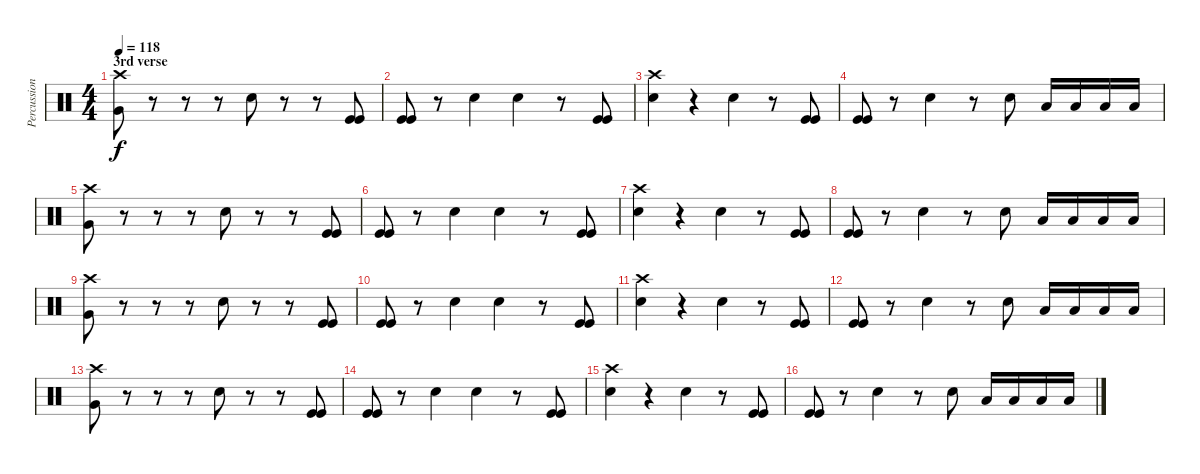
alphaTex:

\track ("Percussion" "Percussion") {instrument percussion}
\staff {score}
\articulation defaults
\ts (4 4)
\section ("" "3rd verse")
\tempo 118
\clef neutral
\ks c
("Crash high (hit)" "Very Low Tom (hit)").8{dy f} r.8 r.8 r.8 "Electric Snare (hit)".8 r.8 r.8 ("Kick (hit)" "Kick (hit)").8 |
("Kick (hit)" "Kick (hit)").8 r.8 "Electric Snare (hit)".4 "Electric Snare (hit)".4 r.8 ("Kick (hit)" "Kick (hit)").8 |
("Crash high (hit)" "Electric Snare (hit)").4 r.4 "Electric Snare (hit)".4 r.8 ("Kick (hit)" "Kick (hit)").8 |
("Kick (hit)" "Kick (hit)").8 r.8 "Electric Snare (hit)".4 r.8 "Electric Snare (hit)".8 "Low Tom (hit)".16 "Low Floor Tom (hit)".16 "Low Tom (hit)".16 "Low Floor Tom (hit)".16 |
("Crash high (hit)" "Very Low Tom (hit)").8 r.8 r.8 r.8 "Electric Snare (hit)".8 r.8 r.8 ("Kick (hit)" "Kick (hit)").8 |
("Kick (hit)" "Kick (hit)").8 r.8 "Electric Snare (hit)".4 "Electric Snare (hit)".4 r.8 ("Kick (hit)" "Kick (hit)").8 |
("Crash high (hit)" "Electric Snare (hit)").4 r.4 "Electric Snare (hit)".4 r.8 ("Kick (hit)" "Kick (hit)").8 |
("Kick (hit)" "Kick (hit)").8 r.8 "Electric Snare (hit)".4 r.8 "Electric Snare (hit)".8 "Low Tom (hit)".16 "Low Floor Tom (hit)".16 "Low Tom (hit)".16 "Low Floor Tom (hit)".16 |
("Crash high (hit)" "Very Low Tom (hit)").8 r.8 r.8 r.8 "Electric Snare (hit)".8 r.8 r.8 ("Kick (hit)" "Kick (hit)").8 |
("Kick (hit)" "Kick (hit)").8 r.8 "Electric Snare (hit)".4 "Electric Snare (hit)".4 r.8 ("Kick (hit)" "Kick (hit)").8 |
("Crash high (hit)" "Electric Snare (hit)").4 r.4 "Electric Snare (hit)".4 r.8 ("Kick (hit)" "Kick (hit)").8 |
("Kick (hit)" "Kick (hit)").8 r.8 "Electric Snare (hit)".4 r.8 "Electric Snare (hit)".8 "Low Tom (hit)".16 "Low Floor Tom (hit)".16 "Low Tom (hit)".16 "Low Floor Tom (hit)".16 |
("Crash high (hit)" "Very Low Tom (hit)").8 r.8 r.8 r.8 "Electric Snare (hit)".8 r.8 r.8 ("Kick (hit)" "Kick (hit)").8 |
("Kick (hit)" "Kick (hit)").8 r.8 "Electric Snare (hit)".4 "Electric Snare (hit)".4 r.8 ("Kick (hit)" "Kick (hit)").8 |
("Crash high (hit)" "Electric Snare (hit)").4 r.4 "Electric Snare (hit)".4 r.8 ("Kick (hit)" "Kick (hit)").8 |
("Kick (hit)" "Kick (hit)").8 r.8 "Electric Snare (hit)".4 r.8 "Electric Snare (hit)".8 "Low Tom (hit)".16 "Low Floor Tom (hit)".16 "Low Tom (hit)".16 "Low Floor Tom (hit)".16
